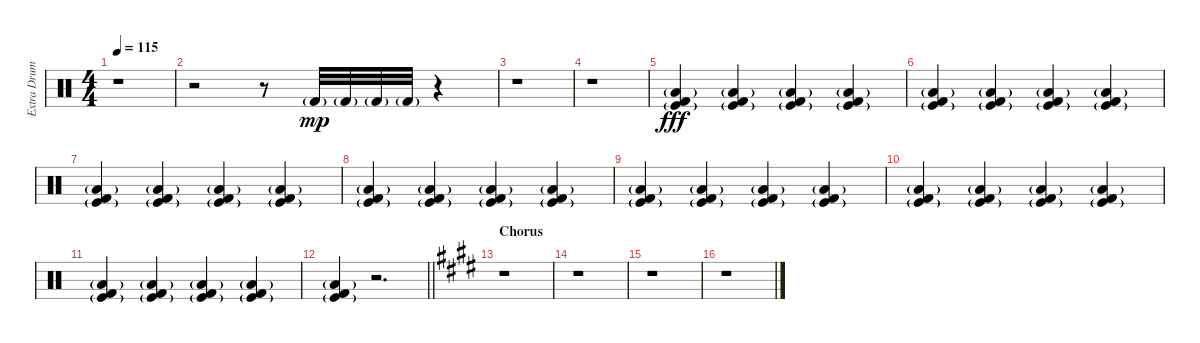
\track ("Extra Drum" "Extra Drum") {instrument percussion}
\staff {score}
\articulation defaults
\ts (4 4)
\tempo 115
\clef neutral
\ks c
r.1{dy mp} |
r.2 r.8 "Kick (hit) 2"{g}.32 "Kick (hit) 2"{g}.32 "Kick (hit) 2"{g}.32 "Kick (hit) 2"{g}.32 r.4 |
r.1 |
r.1 |
("Low Floor Tom (hit)"{g} "Kick (hit)"{g} "Kick (hit) 2").4{dy fff} ("Low Floor Tom (hit)"{g} "Kick (hit)"{g} "Kick (hit) 2").4 ("Low Floor Tom (hit)"{g} "Kick (hit)"{g} "Kick (hit) 2").4 ("Low Floor Tom (hit)"{g} "Kick (hit)"{g} "Kick (hit) 2").4 |
("Low Floor Tom (hit)"{g} "Kick (hit)"{g} "Kick (hit) 2").4 ("Low Floor Tom (hit)"{g} "Kick (hit)"{g} "Kick (hit) 2").4 ("Low Floor Tom (hit)"{g} "Kick (hit)"{g} "Kick (hit) 2").4 ("Low Floor Tom (hit)"{g} "Kick (hit)"{g} "Kick (hit) 2").4 |
("Low Floor Tom (hit)"{g} "Kick (hit)"{g} "Kick (hit) 2").4 ("Low Floor Tom (hit)"{g} "Kick (hit)"{g} "Kick (hit) 2").4 ("Low Floor Tom (hit)"{g} "Kick (hit)"{g} "Kick (hit) 2").4 ("Low Floor Tom (hit)"{g} "Kick (hit)"{g} "Kick (hit) 2").4 |
("Low Floor Tom (hit)"{g} "Kick (hit)"{g} "Kick (hit) 2").4 ("Low Floor Tom (hit)"{g} "Kick (hit)"{g} "Kick (hit) 2").4 ("Low Floor Tom (hit)"{g} "Kick (hit)"{g} "Kick (hit) 2").4 ("Low Floor Tom (hit)"{g} "Kick (hit)"{g} "Kick (hit) 2").4 |
("Low Floor Tom (hit)"{g} "Kick (hit)"{g} "Kick (hit) 2").4 ("Low Floor Tom (hit)"{g} "Kick (hit)"{g} "Kick (hit) 2").4 ("Low Floor Tom (hit)"{g} "Kick (hit)"{g} "Kick (hit) 2").4 ("Low Floor Tom (hit)"{g} "Kick (hit)"{g} "Kick (hit) 2").4 |
("Low Floor Tom (hit)"{g} "Kick (hit)"{g} "Kick (hit) 2").4 ("Low Floor Tom (hit)"{g} "Kick (hit)"{g} "Kick (hit) 2").4 ("Low Floor Tom (hit)"{g} "Kick (hit)"{g} "Kick (hit) 2").4 ("Low Floor Tom (hit)"{g} "Kick (hit)"{g} "Kick (hit) 2").4 |
("Low Floor Tom (hit)"{g} "Kick (hit)"{g} "Kick (hit) 2").4 ("Low Floor Tom (hit)"{g} "Kick (hit)"{g} "Kick (hit) 2").4 ("Low Floor Tom (hit)"{g} "Kick (hit)"{g} "Kick (hit) 2").4 ("Low Floor Tom (hit)"{g} "Kick (hit)"{g} "Kick (hit) 2").4 |
\barLineRight lightlight
("Low Floor Tom (hit)"{g} "Kick (hit)"{g} "Kick (hit) 2").4 r.2{d} |
\section ("" "Chorus")
\ks e
r.1 |
r.1 |
r.1 |
r.1
